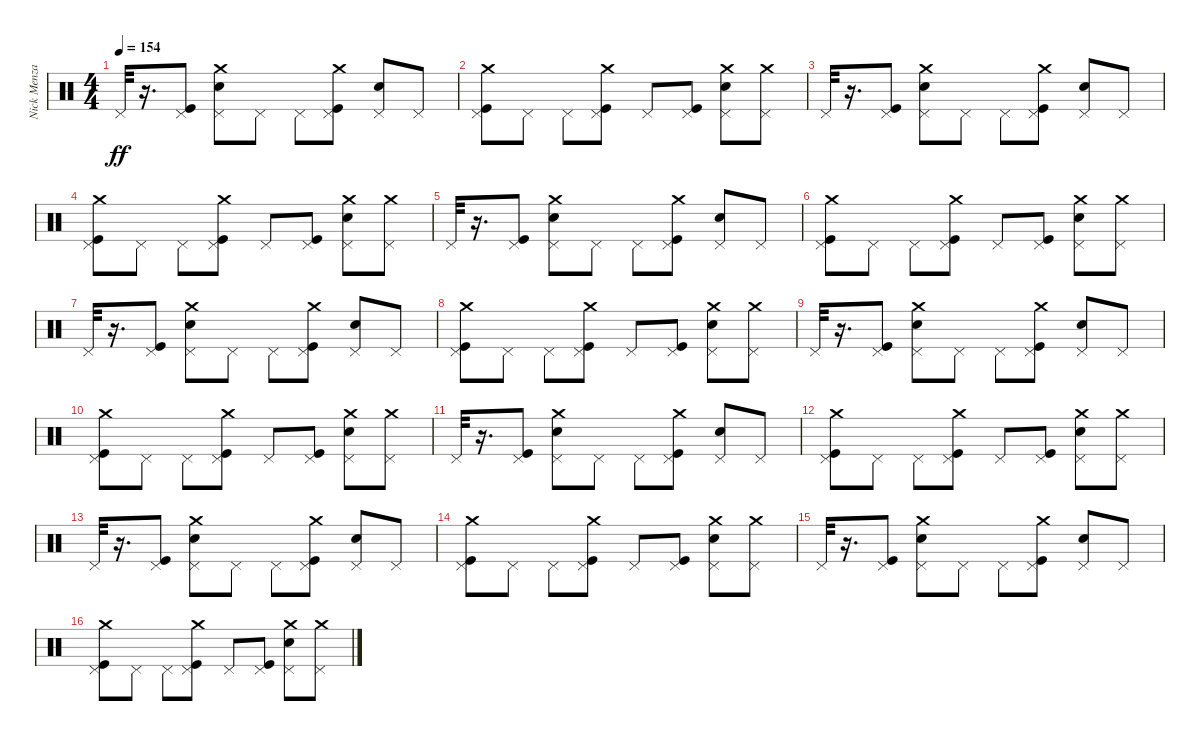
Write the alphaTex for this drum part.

\track ("Nick Menza" "Nick Menza") {instrument percussion}
\staff {score}
\articulation defaults
\ts (4 4)
\tempo 154
\clef neutral
\ks c "Pedal Hi-Hat (hit)".32{dy ff}
r.16{d} ("Pedal Hi-Hat (hit)" "Kick (hit)").8 ("Electric Snare (hit)" "Pedal Hi-Hat (hit)" "Crash medium (hit)").8 "Pedal Hi-Hat (hit)".8 "Pedal Hi-Hat (hit)".8 ("Kick (hit)" "Pedal Hi-Hat (hit)" "Crash medium (hit)").8 ("Electric Snare (hit)" "Pedal Hi-Hat (hit)").8 "Pedal Hi-Hat (hit)".8 |
("Crash medium (hit)" "Pedal Hi-Hat (hit)" "Kick (hit)").8 "Pedal Hi-Hat (hit)".8 "Pedal Hi-Hat (hit)".8 ("Crash medium (hit)" "Pedal Hi-Hat (hit)" "Kick (hit)").8 "Pedal Hi-Hat (hit)".8 ("Kick (hit)" "Pedal Hi-Hat (hit)").8 ("Crash medium (hit)" "Electric Snare (hit)" "Pedal Hi-Hat (hit)").8 ("Crash medium (hit)" "Pedal Hi-Hat (hit)").8 |
"Pedal Hi-Hat (hit)".32 r.16{d} ("Pedal Hi-Hat (hit)" "Kick (hit)").8 ("Crash medium (hit)" "Electric Snare (hit)" "Pedal Hi-Hat (hit)").8 "Pedal Hi-Hat (hit)".8 "Pedal Hi-Hat (hit)".8 ("Crash medium (hit)" "Kick (hit)" "Pedal Hi-Hat (hit)").8 ("Electric Snare (hit)" "Pedal Hi-Hat (hit)").8 "Pedal Hi-Hat (hit)".8 |
("Crash medium (hit)" "Pedal Hi-Hat (hit)" "Kick (hit)").8 "Pedal Hi-Hat (hit)".8 "Pedal Hi-Hat (hit)".8 ("Crash medium (hit)" "Pedal Hi-Hat (hit)" "Kick (hit)").8 "Pedal Hi-Hat (hit)".8 ("Kick (hit)" "Pedal Hi-Hat (hit)").8 ("Crash medium (hit)" "Electric Snare (hit)" "Pedal Hi-Hat (hit)").8 ("Crash medium (hit)" "Pedal Hi-Hat (hit)").8 |
"Pedal Hi-Hat (hit)".32 r.16{d} ("Pedal Hi-Hat (hit)" "Kick (hit)").8 ("Crash medium (hit)" "Electric Snare (hit)" "Pedal Hi-Hat (hit)").8 "Pedal Hi-Hat (hit)".8 "Pedal Hi-Hat (hit)".8 ("Kick (hit)" "Pedal Hi-Hat (hit)" "Crash medium (hit)").8 ("Electric Snare (hit)" "Pedal Hi-Hat (hit)").8 "Pedal Hi-Hat (hit)".8 |
("Crash medium (hit)" "Kick (hit)" "Pedal Hi-Hat (hit)").8 "Pedal Hi-Hat (hit)".8 "Pedal Hi-Hat (hit)".8 ("Crash medium (hit)" "Pedal Hi-Hat (hit)" "Kick (hit)").8 "Pedal Hi-Hat (hit)".8 ("Kick (hit)" "Pedal Hi-Hat (hit)").8 ("Crash medium (hit)" "Electric Snare (hit)" "Pedal Hi-Hat (hit)").8 ("Crash medium (hit)" "Pedal Hi-Hat (hit)").8 |
"Pedal Hi-Hat (hit)".32 r.16{d} ("Pedal Hi-Hat (hit)" "Kick (hit)").8 ("Electric Snare (hit)" "Pedal Hi-Hat (hit)" "Crash medium (hit)").8 "Pedal Hi-Hat (hit)".8 "Pedal Hi-Hat (hit)".8 ("Kick (hit)" "Pedal Hi-Hat (hit)" "Crash medium (hit)").8 ("Electric Snare (hit)" "Pedal Hi-Hat (hit)").8 "Pedal Hi-Hat (hit)".8 |
("Crash medium (hit)" "Kick (hit)" "Pedal Hi-Hat (hit)").8 "Pedal Hi-Hat (hit)".8 "Pedal Hi-Hat (hit)".8 ("Crash medium (hit)" "Pedal Hi-Hat (hit)" "Kick (hit)").8 "Pedal Hi-Hat (hit)".8 ("Kick (hit)" "Pedal Hi-Hat (hit)").8 ("Crash medium (hit)" "Electric Snare (hit)" "Pedal Hi-Hat (hit)").8 ("Crash medium (hit)" "Pedal Hi-Hat (hit)").8 |
"Pedal Hi-Hat (hit)".32 r.16{d} ("Pedal Hi-Hat (hit)" "Kick (hit)").8 ("Electric Snare (hit)" "Pedal Hi-Hat (hit)" "Crash medium (hit)").8 "Pedal Hi-Hat (hit)".8 "Pedal Hi-Hat (hit)".8 ("Kick (hit)" "Pedal Hi-Hat (hit)" "Crash medium (hit)").8 ("Electric Snare (hit)" "Pedal Hi-Hat (hit)").8 "Pedal Hi-Hat (hit)".8 |
("Crash medium (hit)" "Kick (hit)" "Pedal Hi-Hat (hit)").8 "Pedal Hi-Hat (hit)".8 "Pedal Hi-Hat (hit)".8 ("Crash medium (hit)" "Pedal Hi-Hat (hit)" "Kick (hit)").8 "Pedal Hi-Hat (hit)".8 ("Kick (hit)" "Pedal Hi-Hat (hit)").8 ("Crash medium (hit)" "Electric Snare (hit)" "Pedal Hi-Hat (hit)").8 ("Crash medium (hit)" "Pedal Hi-Hat (hit)").8 |
"Pedal Hi-Hat (hit)".32 r.16{d} ("Pedal Hi-Hat (hit)" "Kick (hit)").8 ("Crash medium (hit)" "Electric Snare (hit)" "Pedal Hi-Hat (hit)").8 "Pedal Hi-Hat (hit)".8 "Pedal Hi-Hat (hit)".8 ("Crash medium (hit)" "Kick (hit)" "Pedal Hi-Hat (hit)").8 ("Electric Snare (hit)" "Pedal Hi-Hat (hit)").8 "Pedal Hi-Hat (hit)".8 |
("Crash medium (hit)" "Pedal Hi-Hat (hit)" "Kick (hit)").8 "Pedal Hi-Hat (hit)".8 "Pedal Hi-Hat (hit)".8 ("Crash medium (hit)" "Pedal Hi-Hat (hit)" "Kick (hit)").8 "Pedal Hi-Hat (hit)".8 ("Kick (hit)" "Pedal Hi-Hat (hit)").8 ("Crash medium (hit)" "Electric Snare (hit)" "Pedal Hi-Hat (hit)").8 ("Crash medium (hit)" "Pedal Hi-Hat (hit)").8 |
"Pedal Hi-Hat (hit)".32 r.16{d} ("Pedal Hi-Hat (hit)" "Kick (hit)").8 ("Crash medium (hit)" "Electric Snare (hit)" "Pedal Hi-Hat (hit)").8 "Pedal Hi-Hat (hit)".8 "Pedal Hi-Hat (hit)".8 ("Kick (hit)" "Pedal Hi-Hat (hit)" "Crash medium (hit)").8 ("Electric Snare (hit)" "Pedal Hi-Hat (hit)").8 "Pedal Hi-Hat (hit)".8 |
("Crash medium (hit)" "Kick (hit)" "Pedal Hi-Hat (hit)").8 "Pedal Hi-Hat (hit)".8 "Pedal Hi-Hat (hit)".8 ("Kick (hit)" "Pedal Hi-Hat (hit)" "Crash medium (hit)").8 "Pedal Hi-Hat (hit)".8 ("Kick (hit)" "Pedal Hi-Hat (hit)").8 ("Crash medium (hit)" "Electric Snare (hit)" "Pedal Hi-Hat (hit)").8 ("Crash medium (hit)" "Pedal Hi-Hat (hit)").8 |
"Pedal Hi-Hat (hit)".32 r.16{d} ("Pedal Hi-Hat (hit)" "Kick (hit)").8 ("Electric Snare (hit)" "Pedal Hi-Hat (hit)" "Crash medium (hit)").8 "Pedal Hi-Hat (hit)".8 "Pedal Hi-Hat (hit)".8 ("Kick (hit)" "Pedal Hi-Hat (hit)" "Crash medium (hit)").8 ("Electric Snare (hit)" "Pedal Hi-Hat (hit)").8 "Pedal Hi-Hat (hit)".8 |
("Crash medium (hit)" "Kick (hit)" "Pedal Hi-Hat (hit)").8 "Pedal Hi-Hat (hit)".8 "Pedal Hi-Hat (hit)".8 ("Crash medium (hit)" "Pedal Hi-Hat (hit)" "Kick (hit)").8 "Pedal Hi-Hat (hit)".8 ("Kick (hit)" "Pedal Hi-Hat (hit)").8 ("Crash medium (hit)" "Electric Snare (hit)" "Pedal Hi-Hat (hit)").8 ("Crash medium (hit)" "Pedal Hi-Hat (hit)").8
